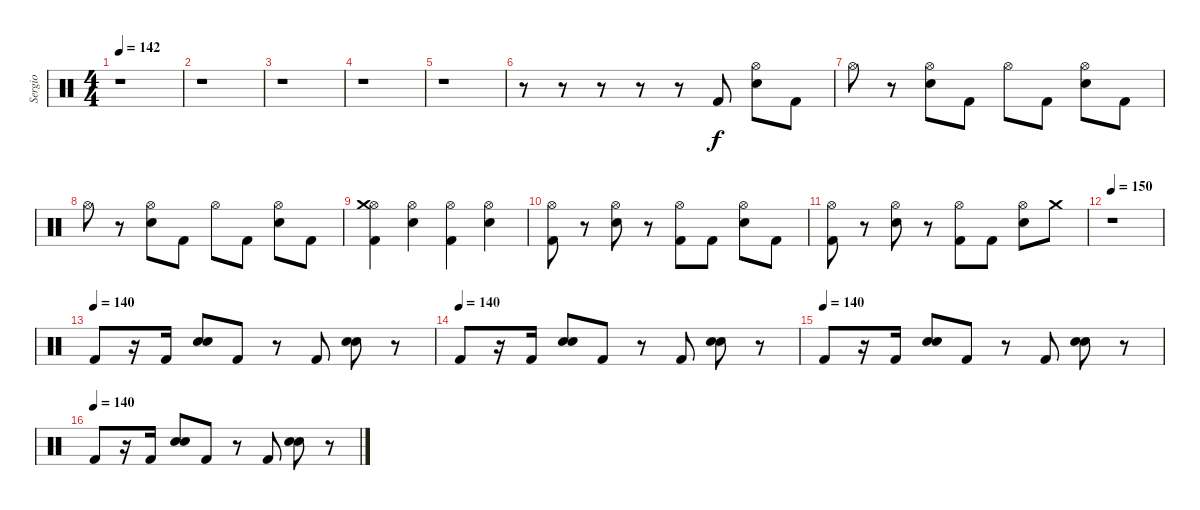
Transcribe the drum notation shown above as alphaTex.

\track ("Sergio" "Sergio") {instrument percussion}
\staff {score}
\articulation defaults
\ts (4 4)
\tempo 142
\clef neutral
\ks c
r.1{dy f} |
r.1 |
r.1 |
r.1 |
r.1 |
r.8 r.8 r.8 r.8 r.8 "Kick (hit) 2".8 ("Snare (hit) 2" "Hi-Hat (open)").8 "Kick (hit) 2".8 |
"Hi-Hat (open)".8 r.8 ("Snare (hit) 2" "Hi-Hat (open)").8 "Kick (hit) 2".8 "Hi-Hat (open)".8 "Kick (hit) 2".8 ("Snare (hit) 2" "Hi-Hat (open)").8 "Kick (hit) 2".8 |
"Hi-Hat (open)".8 r.8 ("Snare (hit) 2" "Hi-Hat (open)").8 "Kick (hit) 2".8 "Hi-Hat (open)".8 "Kick (hit) 2".8 ("Snare (hit) 2" "Hi-Hat (open)").8 "Kick (hit) 2".8 |
("Kick (hit) 2" "Hi-Hat (open)" "Crash medium (hit)").4 ("Snare (hit) 2" "Hi-Hat (open)").4 ("Kick (hit) 2" "Hi-Hat (open)").4 ("Snare (hit) 2" "Hi-Hat (open)").4 |
("Kick (hit) 2" "Hi-Hat (open)").8 r.8 ("Snare (hit) 2" "Hi-Hat (open)").8 r.8 ("Kick (hit) 2" "Hi-Hat (open)").8 "Kick (hit) 2".8 ("Snare (hit) 2" "Hi-Hat (open)").8 "Kick (hit) 2".8 |
("Kick (hit) 2" "Hi-Hat (open)").8 r.8 ("Snare (hit) 2" "Hi-Hat (open)").8 r.8 ("Kick (hit) 2" "Hi-Hat (open)").8 "Kick (hit) 2".8 ("Snare (hit) 2" "Hi-Hat (open)").8 "Crash medium (hit)".8 |
\tempo 150
r.1 |
\tempo (140)
"Kick (hit) 2".8 r.16 "Kick (hit) 2".16 ("Snare (hit) 2" "Snare (hit) 2").8 "Kick (hit) 2".8 r.8 "Kick (hit) 2".8 ("Snare (hit) 2" "Snare (hit) 2").8 r.8 |
\tempo (140)
"Kick (hit) 2".8 r.16 "Kick (hit) 2".16 ("Snare (hit) 2" "Snare (hit) 2").8 "Kick (hit) 2".8 r.8 "Kick (hit) 2".8 ("Snare (hit) 2" "Snare (hit) 2").8 r.8 |
\tempo (140)
"Kick (hit) 2".8 r.16 "Kick (hit) 2".16 ("Snare (hit) 2" "Snare (hit) 2").8 "Kick (hit) 2".8 r.8 "Kick (hit) 2".8 ("Snare (hit) 2" "Snare (hit) 2").8 r.8 |
\tempo (140)
"Kick (hit) 2".8 r.16 "Kick (hit) 2".16 ("Snare (hit) 2" "Snare (hit) 2").8 "Kick (hit) 2".8 r.8 "Kick (hit) 2".8 ("Snare (hit) 2" "Snare (hit) 2").8 r.8
